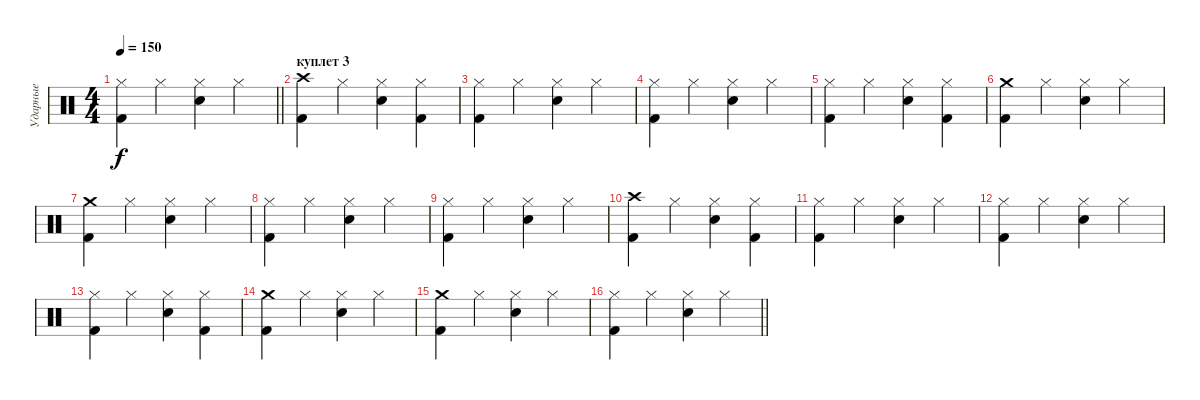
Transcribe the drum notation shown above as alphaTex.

\track ("Ударные" "Ударные") {instrument percussion}
\staff {score}
\articulation defaults
\ts (4 4)
\tempo 150
\clef neutral
\barLineRight lightlight
\ks c
("Hi-Hat (closed)" "Kick (hit) 2").4{dy f} "Hi-Hat (closed)".4 ("Hi-Hat (closed)" "Snare (hit) 2").4 "Hi-Hat (closed)".4 |
\section ("" "куплет 3")
("Crash high (hit)" "Kick (hit) 2").4 "Hi-Hat (closed)".4 ("Hi-Hat (closed)" "Snare (hit) 2").4 ("Hi-Hat (closed)" "Kick (hit) 2").4 |
("Hi-Hat (closed)" "Kick (hit) 2").4 "Hi-Hat (closed)".4 ("Hi-Hat (closed)" "Snare (hit) 2").4 "Hi-Hat (closed)".4 |
("Hi-Hat (closed)" "Kick (hit) 2").4 "Hi-Hat (closed)".4 ("Hi-Hat (closed)" "Snare (hit) 2").4 "Hi-Hat (closed)".4 |
("Hi-Hat (closed)" "Kick (hit) 2").4 "Hi-Hat (closed)".4 ("Hi-Hat (closed)" "Snare (hit) 2").4 ("Hi-Hat (closed)" "Kick (hit) 2").4 |
("Crash medium (hit)" "Kick (hit) 2").4 "Hi-Hat (closed)".4 ("Hi-Hat (closed)" "Snare (hit) 2").4 "Hi-Hat (closed)".4 |
("Crash medium (hit)" "Kick (hit) 2").4 "Hi-Hat (closed)".4 ("Hi-Hat (closed)" "Snare (hit) 2").4 "Hi-Hat (closed)".4 |
("Hi-Hat (closed)" "Kick (hit) 2").4 "Hi-Hat (closed)".4 ("Hi-Hat (closed)" "Snare (hit) 2").4 "Hi-Hat (closed)".4 |
("Hi-Hat (closed)" "Kick (hit) 2").4 "Hi-Hat (closed)".4 ("Hi-Hat (closed)" "Snare (hit) 2").4 "Hi-Hat (closed)".4 |
("Crash high (hit)" "Kick (hit) 2").4 "Hi-Hat (closed)".4 ("Hi-Hat (closed)" "Snare (hit) 2").4 ("Hi-Hat (closed)" "Kick (hit) 2").4 |
("Hi-Hat (closed)" "Kick (hit) 2").4 "Hi-Hat (closed)".4 ("Hi-Hat (closed)" "Snare (hit) 2").4 "Hi-Hat (closed)".4 |
("Hi-Hat (closed)" "Kick (hit) 2").4 "Hi-Hat (closed)".4 ("Hi-Hat (closed)" "Snare (hit) 2").4 "Hi-Hat (closed)".4 |
("Hi-Hat (closed)" "Kick (hit) 2").4 "Hi-Hat (closed)".4 ("Hi-Hat (closed)" "Snare (hit) 2").4 ("Hi-Hat (closed)" "Kick (hit) 2").4 |
("Crash medium (hit)" "Kick (hit) 2").4 "Hi-Hat (closed)".4 ("Hi-Hat (closed)" "Snare (hit) 2").4 "Hi-Hat (closed)".4 |
("Crash medium (hit)" "Kick (hit) 2").4 "Hi-Hat (closed)".4 ("Hi-Hat (closed)" "Snare (hit) 2").4 "Hi-Hat (closed)".4 |
\barLineRight lightlight
("Hi-Hat (closed)" "Kick (hit) 2").4 "Hi-Hat (closed)".4 ("Hi-Hat (closed)" "Snare (hit) 2").4 "Hi-Hat (closed)".4
